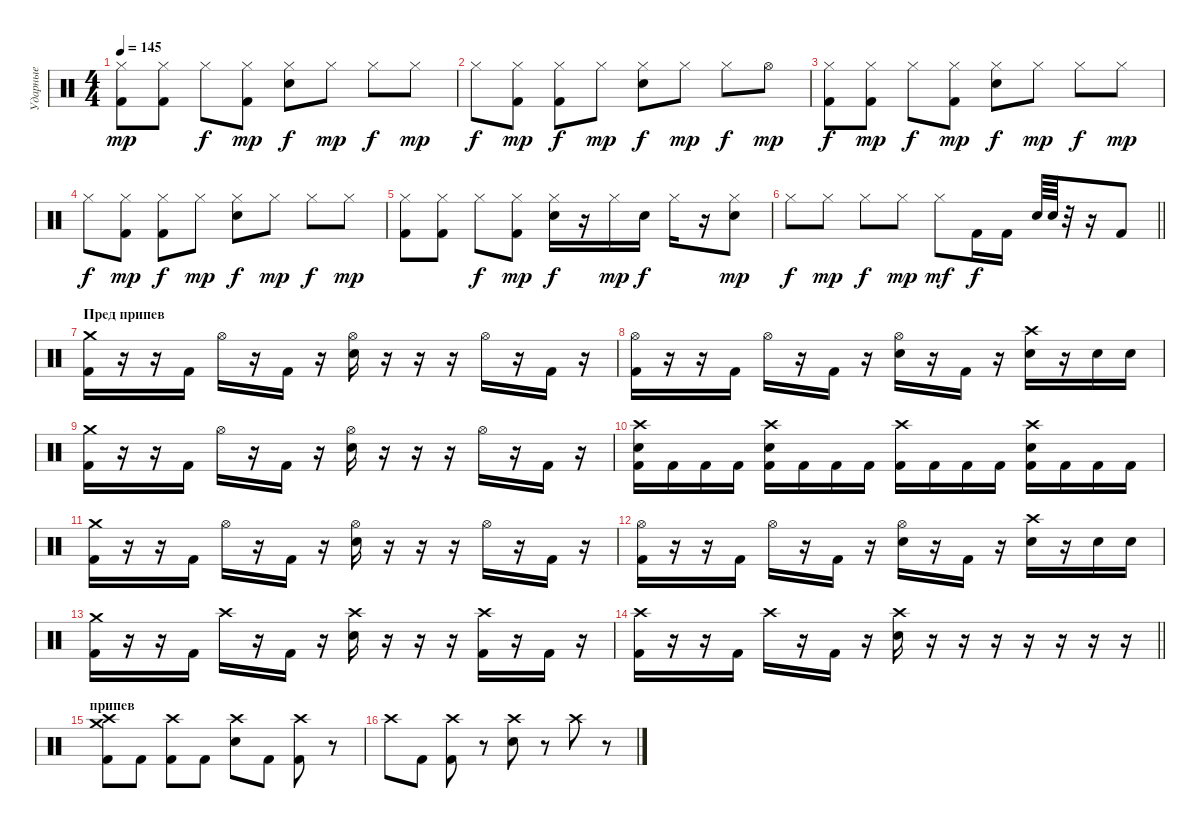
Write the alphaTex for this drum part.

\track ("Ударные" "Ударные") {instrument percussion}
\staff {score}
\articulation defaults
\ts (4 4)
\tempo 145
\clef neutral
\ks c
("Hi-Hat (closed)" "Kick (hit) 2").8{dy mp} ("Hi-Hat (closed)" "Kick (hit) 2").8 "Hi-Hat (closed)".8{dy f} ("Hi-Hat (closed)" "Kick (hit) 2").8{dy mp} ("Hi-Hat (closed)" "Electric Snare (hit)").8{dy f} "Hi-Hat (closed)".8{dy mp} "Hi-Hat (closed)".8{dy f} "Hi-Hat (closed)".8{dy mp} |
"Hi-Hat (closed)".8{dy f} ("Hi-Hat (closed)" "Kick (hit) 2").8{dy mp} ("Hi-Hat (closed)" "Kick (hit) 2").8{dy f} "Hi-Hat (closed)".8{dy mp} ("Hi-Hat (closed)" "Electric Snare (hit)").8{dy f} "Hi-Hat (closed)".8{dy mp} "Hi-Hat (closed)".8{dy f} "Hi-Hat (open)".8{dy mp} |
("Hi-Hat (closed)" "Kick (hit) 2").8{dy f} ("Hi-Hat (closed)" "Kick (hit) 2").8{dy mp} "Hi-Hat (closed)".8{dy f} ("Hi-Hat (closed)" "Kick (hit) 2").8{dy mp} ("Hi-Hat (closed)" "Electric Snare (hit)").8{dy f} "Hi-Hat (closed)".8{dy mp} "Hi-Hat (closed)".8{dy f} "Hi-Hat (closed)".8{dy mp} |
"Hi-Hat (closed)".8{dy f} ("Hi-Hat (closed)" "Kick (hit) 2").8{dy mp} ("Hi-Hat (closed)" "Kick (hit) 2").8{dy f} "Hi-Hat (closed)".8{dy mp} ("Hi-Hat (closed)" "Electric Snare (hit)").8{dy f} "Hi-Hat (closed)".8{dy mp} "Hi-Hat (closed)".8{dy f} "Hi-Hat (closed)".8{dy mp} |
("Hi-Hat (closed)" "Kick (hit) 2").8 ("Hi-Hat (closed)" "Kick (hit) 2").8 "Hi-Hat (closed)".8{dy f} ("Hi-Hat (closed)" "Kick (hit) 2").8{dy mp} ("Hi-Hat (closed)" "Electric Snare (hit)").16{dy f} r.16 "Hi-Hat (closed)".16{dy mp} "Electric Snare (hit)".16{dy f} "Hi-Hat (closed)".16 r.16 ("Hi-Hat (closed)" "Electric Snare (hit)").8{dy mp} |
\barLineRight lightlight "Hi-Hat (closed)".8{dy f} "Hi-Hat (closed)".8{dy mp} "Hi-Hat (closed)".8{dy f} "Hi-Hat (closed)".8{dy mp} "Hi-Hat (closed)".8{dy mf} "Kick (hit) 2".16{dy f} "Kick (hit) 2".16 "Electric Snare (hit)".64 "Electric Snare (hit)".64
r.32 r.16 "Kick (hit) 2".8 |
\section ("" "Пред припев")
("Crash medium (hit)" "Kick (hit) 2").16 r.16 r.16 "Kick (hit) 2".16 "Hi-Hat (open)".16 r.16 "Kick (hit) 2".16 r.16 ("Hi-Hat (open)" "Electric Snare (hit)").16 r.16 r.16 r.16 "Hi-Hat (open)".16 r.16 "Kick (hit) 2".16 r.16 |
("Hi-Hat (open)" "Kick (hit) 2").16 r.16 r.16 "Kick (hit) 2".16 "Hi-Hat (open)".16 r.16 "Kick (hit) 2".16 r.16 ("Hi-Hat (open)" "Electric Snare (hit)").16 r.16 "Kick (hit) 2".16 r.16 ("Crash high (hit)" "Electric Snare (hit)").16 r.16 "Electric Snare (hit)".16 "Electric Snare (hit)".16 |
("Crash medium (hit)" "Kick (hit) 2").16 r.16 r.16 "Kick (hit) 2".16 "Hi-Hat (open)".16 r.16 "Kick (hit) 2".16 r.16 ("Hi-Hat (open)" "Electric Snare (hit)").16 r.16 r.16 r.16 "Hi-Hat (open)".16 r.16 "Kick (hit) 2".16 r.16 |
("Crash high (hit)" "Electric Snare (hit)" "Kick (hit) 2").16 "Kick (hit) 2".16 "Kick (hit) 2".16 "Kick (hit) 2".16 ("Crash high (hit)" "Electric Snare (hit)" "Kick (hit) 2").16 "Kick (hit) 2".16 "Kick (hit) 2".16 "Kick (hit) 2".16 ("Crash high (hit)" "Kick (hit) 2").16 "Kick (hit) 2".16 "Kick (hit) 2".16 "Kick (hit) 2".16 ("Crash high (hit)" "Electric Snare (hit)" "Kick (hit) 2").16 "Kick (hit) 2".16 "Kick (hit) 2".16 "Kick (hit) 2".16 |
("Crash medium (hit)" "Kick (hit) 2").16 r.16 r.16 "Kick (hit) 2".16 "Hi-Hat (open)".16 r.16 "Kick (hit) 2".16 r.16 ("Hi-Hat (open)" "Electric Snare (hit)").16 r.16 r.16 r.16 "Hi-Hat (open)".16 r.16 "Kick (hit) 2".16 r.16 |
("Hi-Hat (open)" "Kick (hit) 2").16 r.16 r.16 "Kick (hit) 2".16 "Hi-Hat (open)".16 r.16 "Kick (hit) 2".16 r.16 ("Hi-Hat (open)" "Electric Snare (hit)").16 r.16 "Kick (hit) 2".16 r.16 ("Crash high (hit)" "Electric Snare (hit)").16 r.16 "Electric Snare (hit)".16 "Electric Snare (hit)".16 |
("Crash medium (hit)" "Kick (hit) 2").16 r.16 r.16 "Kick (hit) 2".16 "Crash high (hit)".16 r.16 "Kick (hit) 2".16 r.16 ("Crash high (hit)" "Electric Snare (hit)").16 r.16 r.16 r.16 ("Crash high (hit)" "Kick (hit) 2").16 r.16 "Kick (hit) 2".16 r.16 |
\barLineRight lightlight
("Crash high (hit)" "Kick (hit) 2").16 r.16 r.16 "Kick (hit) 2".16 "Crash high (hit)".16 r.16 "Kick (hit) 2".16 r.16 ("Crash high (hit)" "Electric Snare (hit)").16 r.16 r.16 r.16 r.16 r.16 r.16 r.16 |
\section ("" "припев")
("Crash medium (hit)" "Crash high (hit)" "Kick (hit) 2").8 "Kick (hit) 2".8 ("Crash high (hit)" "Kick (hit) 2").8 "Kick (hit) 2".8 ("Crash high (hit)" "Electric Snare (hit)").8 "Kick (hit) 2".8 ("Crash high (hit)" "Kick (hit) 2").8 r.8 |
"Crash high (hit)".8 "Kick (hit) 2".8 ("Crash high (hit)" "Kick (hit) 2").8 r.8 ("Crash high (hit)" "Electric Snare (hit)").8 r.8 "Crash high (hit)".8 r.8
